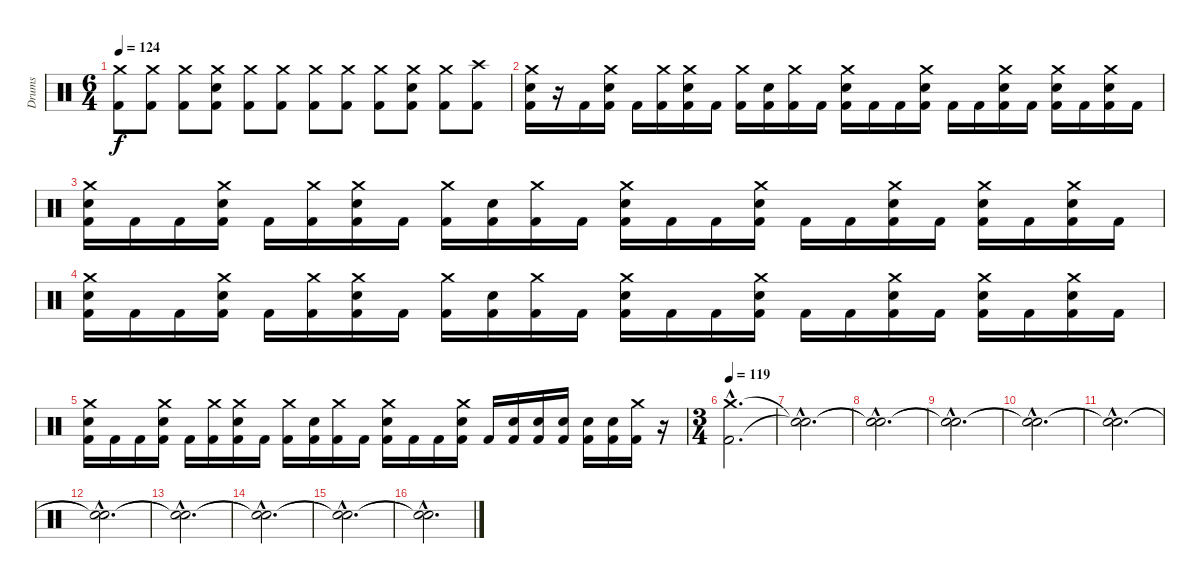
\track ("Drums" "Drums") {instrument percussion}
\staff {score}
\articulation defaults
\ts (6 4)
\tempo 124
\clef neutral
\ks c
("Crash medium (hit)" "Kick (hit) 2").8{dy f} ("Crash medium (hit)" "Kick (hit) 2").8 ("Crash medium (hit)" "Kick (hit) 2").8 ("Crash medium (hit)" "Electric Snare (hit)" "Kick (hit) 2").8 ("Crash medium (hit)" "Kick (hit) 2").8 ("Crash medium (hit)" "Kick (hit) 2").8 ("Crash medium (hit)" "Kick (hit) 2").8 ("Crash medium (hit)" "Kick (hit) 2").8 ("Crash medium (hit)" "Kick (hit) 2").8 ("Crash medium (hit)" "Electric Snare (hit)" "Kick (hit) 2").8 ("Crash medium (hit)" "Kick (hit) 2").8 ("Crash high (hit)" "Kick (hit) 2").8 |
\section ("" "")
("Crash medium (hit)" "Electric Snare (hit)" "Kick (hit) 2").16 r.16 "Kick (hit) 2".16 ("Crash medium (hit)" "Electric Snare (hit)" "Kick (hit) 2").16 "Kick (hit) 2".16 ("Crash medium (hit)" "Kick (hit) 2").16 ("Crash medium (hit)" "Electric Snare (hit)" "Kick (hit) 2").16 "Kick (hit) 2".16 ("Crash medium (hit)" "Kick (hit) 2").16 ("Electric Snare (hit)" "Kick (hit) 2").16 ("Crash medium (hit)" "Kick (hit) 2").16 "Kick (hit) 2".16 ("Crash medium (hit)" "Electric Snare (hit)" "Kick (hit) 2").16 "Kick (hit) 2".16 "Kick (hit) 2".16 ("Crash medium (hit)" "Electric Snare (hit)" "Kick (hit) 2").16 "Kick (hit) 2".16 "Kick (hit) 2".16 ("Crash medium (hit)" "Electric Snare (hit)" "Kick (hit) 2").16 "Kick (hit) 2".16 ("Crash medium (hit)" "Electric Snare (hit)" "Kick (hit) 2").16 "Kick (hit) 2".16 ("Crash medium (hit)" "Electric Snare (hit)" "Kick (hit) 2").16 "Kick (hit) 2".16 |
("Crash medium (hit)" "Electric Snare (hit)" "Kick (hit) 2").16 "Kick (hit) 2".16 "Kick (hit) 2".16 ("Crash medium (hit)" "Electric Snare (hit)" "Kick (hit) 2").16 "Kick (hit) 2".16 ("Crash medium (hit)" "Kick (hit) 2").16 ("Crash medium (hit)" "Electric Snare (hit)" "Kick (hit) 2").16 "Kick (hit) 2".16 ("Crash medium (hit)" "Kick (hit) 2").16 ("Electric Snare (hit)" "Kick (hit) 2").16 ("Crash medium (hit)" "Kick (hit) 2").16 "Kick (hit) 2".16 ("Crash medium (hit)" "Electric Snare (hit)" "Kick (hit) 2").16 "Kick (hit) 2".16 "Kick (hit) 2".16 ("Crash medium (hit)" "Electric Snare (hit)" "Kick (hit) 2").16 "Kick (hit) 2".16 "Kick (hit) 2".16 ("Crash medium (hit)" "Electric Snare (hit)" "Kick (hit) 2").16 "Kick (hit) 2".16 ("Crash medium (hit)" "Electric Snare (hit)" "Kick (hit) 2").16 "Kick (hit) 2".16 ("Crash medium (hit)" "Electric Snare (hit)" "Kick (hit) 2").16 "Kick (hit) 2".16 |
("Crash medium (hit)" "Electric Snare (hit)" "Kick (hit) 2").16 "Kick (hit) 2".16 "Kick (hit) 2".16 ("Crash medium (hit)" "Electric Snare (hit)" "Kick (hit) 2").16 "Kick (hit) 2".16 ("Crash medium (hit)" "Kick (hit) 2").16 ("Crash medium (hit)" "Electric Snare (hit)" "Kick (hit) 2").16 "Kick (hit) 2".16 ("Crash medium (hit)" "Kick (hit) 2").16 ("Electric Snare (hit)" "Kick (hit) 2").16 ("Crash medium (hit)" "Kick (hit) 2").16 "Kick (hit) 2".16 ("Crash medium (hit)" "Electric Snare (hit)" "Kick (hit) 2").16 "Kick (hit) 2".16 "Kick (hit) 2".16 ("Crash medium (hit)" "Electric Snare (hit)" "Kick (hit) 2").16 "Kick (hit) 2".16 "Kick (hit) 2".16 ("Crash medium (hit)" "Electric Snare (hit)" "Kick (hit) 2").16 "Kick (hit) 2".16 ("Crash medium (hit)" "Electric Snare (hit)" "Kick (hit) 2").16 "Kick (hit) 2".16 ("Crash medium (hit)" "Electric Snare (hit)" "Kick (hit) 2").16 "Kick (hit) 2".16 |
("Crash medium (hit)" "Electric Snare (hit)" "Kick (hit) 2").16 "Kick (hit) 2".16 "Kick (hit) 2".16 ("Crash medium (hit)" "Electric Snare (hit)" "Kick (hit) 2").16 "Kick (hit) 2".16 ("Crash medium (hit)" "Kick (hit) 2").16 ("Crash medium (hit)" "Electric Snare (hit)" "Kick (hit) 2").16 "Kick (hit) 2".16 ("Crash medium (hit)" "Kick (hit) 2").16 ("Electric Snare (hit)" "Kick (hit) 2").16 ("Crash medium (hit)" "Kick (hit) 2").16 "Kick (hit) 2".16 ("Crash medium (hit)" "Electric Snare (hit)" "Kick (hit) 2").16 "Kick (hit) 2".16 "Kick (hit) 2".16 ("Crash medium (hit)" "Electric Snare (hit)" "Kick (hit) 2").16 "Kick (hit) 2".16 ("Electric Snare (hit)" "Kick (hit) 2").16 ("Electric Snare (hit)" "Kick (hit) 2").16 ("Electric Snare (hit)" "Kick (hit) 2").16 ("Electric Snare (hit)" "Kick (hit) 2").16 ("Electric Snare (hit)" "Kick (hit) 2").16 ("Crash medium (hit)" "Kick (hit) 2").16 r.16 |
\ts (3 4)
\section ("" "")
\tempo 119
("Crash medium (hit)"{hac} "Kick (hit) 2"{hac}).2{d} |
("Snare (hit)"{hac t} "Snare (hit)"{hac t}).2{d} |
("Snare (hit)"{hac t} "Snare (hit)"{hac t}).2{d} |
("Snare (hit)"{hac t} "Snare (hit)"{hac t}).2{d} |
("Snare (hit)"{hac t} "Snare (hit)"{hac t}).2{d} |
("Snare (hit)"{hac t} "Snare (hit)"{hac t}).2{d} |
("Snare (hit)"{hac t} "Snare (hit)"{hac t}).2{d} |
("Snare (hit)"{hac t} "Snare (hit)"{hac t}).2{d} |
("Snare (hit)"{hac t} "Snare (hit)"{hac t}).2{d} |
("Snare (hit)"{hac t} "Snare (hit)"{hac t}).2{d} |
("Snare (hit)"{hac t} "Snare (hit)"{hac t}).2{d}
